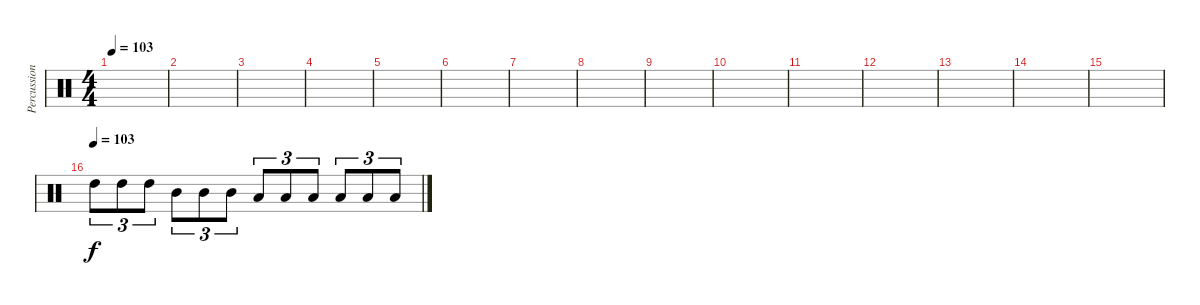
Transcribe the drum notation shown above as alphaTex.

\track ("Percussions 2" "Percussion") {instrument percussion}
\staff {score}
\articulation defaults
\ts (4 4)
\tempo 103
\clef neutral
\ks c
|
|
|
|
|
|
|
|
|
|
|
|
|
|
|
\tempo (103)
"High Tom (hit)".8{tu (3 2)} "High Tom (hit)".8{tu (3 2)} "High Tom (hit)".8{tu (3 2)} "Mid Tom (hit)".8{tu (3 2)} "Mid Tom (hit)".8{tu (3 2)} "Mid Tom (hit)".8{tu (3 2)} "Low Tom (hit)".8{tu (3 2)} "Low Tom (hit)".8{tu (3 2)} "Low Tom (hit)".8{tu (3 2)} "Low Floor Tom (hit)".8{tu (3 2)} "Low Floor Tom (hit)".8{tu (3 2)} "Low Floor Tom (hit)".8{tu (3 2)}
